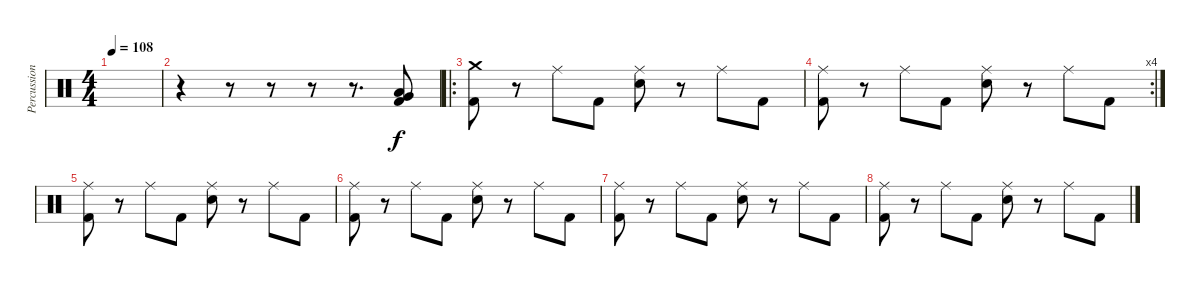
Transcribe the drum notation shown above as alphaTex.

\track ("Percussions" "Percussion") {instrument percussion}
\staff {score}
\articulation defaults
\ts (4 4)
\tempo 108
\clef neutral
\ks c
|
r.4 r.8 r.8 r.8 r.8{d} ("Very Low Tom (hit)" "Kick (hit) 2" "Low Floor Tom (hit)").8 |
\ro
("Kick (hit) 2" "Crash medium (hit)").8 r.8 "Ride (middle)".8 "Kick (hit) 2".8 ("Electric Snare (hit)" "Ride (middle)").8 r.8 "Ride (middle)".8 "Kick (hit) 2".8 |
\rc 4
("Kick (hit) 2" "Ride (middle)").8 r.8 "Ride (middle)".8 "Kick (hit) 2".8 ("Electric Snare (hit)" "Ride (middle)").8 r.8 "Ride (middle)".8 "Kick (hit) 2".8 |
("Kick (hit) 2" "Ride (middle)").8 r.8 "Ride (middle)".8 "Kick (hit) 2".8 ("Electric Snare (hit)" "Ride (middle)").8 r.8 "Ride (middle)".8 "Kick (hit) 2".8 |
("Kick (hit) 2" "Ride (middle)").8 r.8 "Ride (middle)".8 "Kick (hit) 2".8 ("Electric Snare (hit)" "Ride (middle)").8 r.8 "Ride (middle)".8 "Kick (hit) 2".8 |
("Kick (hit) 2" "Ride (middle)").8 r.8 "Ride (middle)".8 "Kick (hit) 2".8 ("Electric Snare (hit)" "Ride (middle)").8 r.8 "Ride (middle)".8 "Kick (hit) 2".8 |
("Kick (hit) 2" "Ride (middle)").8 r.8 "Ride (middle)".8 "Kick (hit) 2".8 ("Electric Snare (hit)" "Ride (middle)").8 r.8 "Ride (middle)".8 "Kick (hit) 2".8
